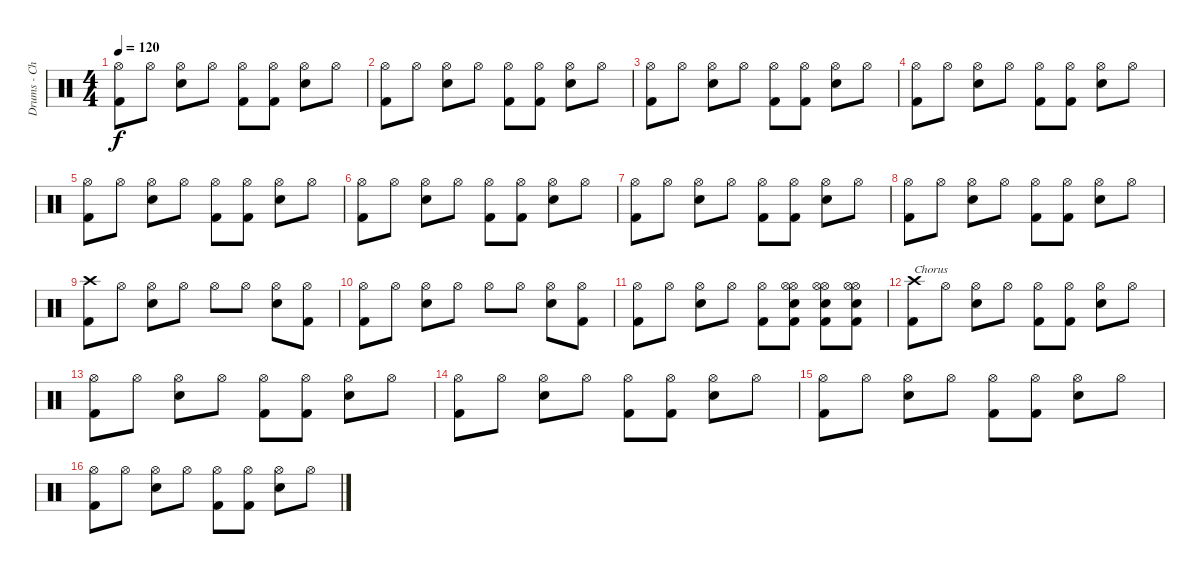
\track ("Drums - Chris" "Drums - Ch") {instrument percussion}
\staff {score}
\articulation defaults
\ts (4 4)
\tempo 120
\clef neutral
\ks c
("Hi-Hat (open)" "Kick (hit) 2").8{dy f} "Hi-Hat (open)".8 ("Hi-Hat (open)" "Snare (hit) 2").8 "Hi-Hat (open)".8 ("Hi-Hat (open)" "Kick (hit) 2").8 ("Hi-Hat (open)" "Kick (hit) 2").8 ("Hi-Hat (open)" "Snare (hit) 2").8 "Hi-Hat (open)".8 |
("Hi-Hat (open)" "Kick (hit) 2").8 "Hi-Hat (open)".8 ("Hi-Hat (open)" "Snare (hit) 2").8 "Hi-Hat (open)".8 ("Hi-Hat (open)" "Kick (hit) 2").8 ("Hi-Hat (open)" "Kick (hit) 2").8 ("Hi-Hat (open)" "Snare (hit) 2").8 "Hi-Hat (open)".8 |
("Hi-Hat (open)" "Kick (hit) 2").8 "Hi-Hat (open)".8 ("Hi-Hat (open)" "Snare (hit) 2").8 "Hi-Hat (open)".8 ("Hi-Hat (open)" "Kick (hit) 2").8 ("Hi-Hat (open)" "Kick (hit) 2").8 ("Hi-Hat (open)" "Snare (hit) 2").8 "Hi-Hat (open)".8 |
("Hi-Hat (open)" "Kick (hit) 2").8 "Hi-Hat (open)".8 ("Hi-Hat (open)" "Snare (hit) 2").8 "Hi-Hat (open)".8 ("Hi-Hat (open)" "Kick (hit) 2").8 ("Hi-Hat (open)" "Kick (hit) 2").8 ("Hi-Hat (open)" "Snare (hit) 2").8 "Hi-Hat (open)".8 |
("Hi-Hat (open)" "Kick (hit) 2").8 "Hi-Hat (open)".8 ("Hi-Hat (open)" "Snare (hit) 2").8 "Hi-Hat (open)".8 ("Hi-Hat (open)" "Kick (hit) 2").8 ("Hi-Hat (open)" "Kick (hit) 2").8 ("Hi-Hat (open)" "Snare (hit) 2").8 "Hi-Hat (open)".8 |
("Hi-Hat (open)" "Kick (hit) 2").8 "Hi-Hat (open)".8 ("Hi-Hat (open)" "Snare (hit) 2").8 "Hi-Hat (open)".8 ("Hi-Hat (open)" "Kick (hit) 2").8 ("Hi-Hat (open)" "Kick (hit) 2").8 ("Hi-Hat (open)" "Snare (hit) 2").8 "Hi-Hat (open)".8 |
("Hi-Hat (open)" "Kick (hit) 2").8 "Hi-Hat (open)".8 ("Hi-Hat (open)" "Snare (hit) 2").8 "Hi-Hat (open)".8 ("Hi-Hat (open)" "Kick (hit) 2").8 ("Hi-Hat (open)" "Kick (hit) 2").8 ("Hi-Hat (open)" "Snare (hit) 2").8 "Hi-Hat (open)".8 |
("Hi-Hat (open)" "Kick (hit) 2").8 "Hi-Hat (open)".8 ("Hi-Hat (open)" "Snare (hit) 2").8 "Hi-Hat (open)".8 ("Hi-Hat (open)" "Kick (hit) 2").8 ("Hi-Hat (open)" "Kick (hit) 2").8 ("Hi-Hat (open)" "Snare (hit) 2").8 "Hi-Hat (open)".8 |
("Crash high (hit)" "Kick (hit) 2").8 "Hi-Hat (open)".8 ("Hi-Hat (open)" "Snare (hit) 2").8 "Hi-Hat (open)".8 "Hi-Hat (open)".8 "Hi-Hat (open)".8 ("Hi-Hat (open)" "Snare (hit) 2").8 ("Hi-Hat (open)" "Kick (hit) 2").8 |
("Hi-Hat (open)" "Kick (hit) 2").8 "Hi-Hat (open)".8 ("Hi-Hat (open)" "Snare (hit) 2").8 "Hi-Hat (open)".8 "Hi-Hat (open)".8 "Hi-Hat (open)".8 ("Hi-Hat (open)" "Snare (hit) 2").8 ("Hi-Hat (open)" "Kick (hit) 2").8 |
("Hi-Hat (open)" "Kick (hit) 2").8 "Hi-Hat (open)".8 ("Hi-Hat (open)" "Snare (hit) 2").8 "Hi-Hat (open)".8 ("Hi-Hat (open)" "Kick (hit) 2").8 ("Hi-Hat (open)" "Hi-Hat (open)" "Snare (hit) 2" "Kick (hit) 2").8 ("Hi-Hat (open)" "Hi-Hat (open)" "Snare (hit) 2" "Kick (hit) 2").8 ("Hi-Hat (open)" "Hi-Hat (open)" "Snare (hit) 2" "Kick (hit) 2").8 |
("Crash high (hit)" "Kick (hit) 2").8{txt "Chorus"} "Hi-Hat (open)".8 ("Hi-Hat (open)" "Snare (hit) 2").8 "Hi-Hat (open)".8 ("Hi-Hat (open)" "Kick (hit) 2").8 ("Hi-Hat (open)" "Kick (hit) 2").8 ("Hi-Hat (open)" "Snare (hit) 2").8 "Hi-Hat (open)".8 |
("Hi-Hat (open)" "Kick (hit) 2").8 "Hi-Hat (open)".8 ("Hi-Hat (open)" "Snare (hit) 2").8 "Hi-Hat (open)".8 ("Hi-Hat (open)" "Kick (hit) 2").8 ("Hi-Hat (open)" "Kick (hit) 2").8 ("Hi-Hat (open)" "Snare (hit) 2").8 "Hi-Hat (open)".8 |
("Hi-Hat (open)" "Kick (hit) 2").8 "Hi-Hat (open)".8 ("Hi-Hat (open)" "Snare (hit) 2").8 "Hi-Hat (open)".8 ("Hi-Hat (open)" "Kick (hit) 2").8 ("Hi-Hat (open)" "Kick (hit) 2").8 ("Hi-Hat (open)" "Snare (hit) 2").8 "Hi-Hat (open)".8 |
("Hi-Hat (open)" "Kick (hit) 2").8 "Hi-Hat (open)".8 ("Hi-Hat (open)" "Snare (hit) 2").8 "Hi-Hat (open)".8 ("Hi-Hat (open)" "Kick (hit) 2").8 ("Hi-Hat (open)" "Kick (hit) 2").8 ("Hi-Hat (open)" "Snare (hit) 2").8 "Hi-Hat (open)".8 |
("Hi-Hat (open)" "Kick (hit) 2").8 "Hi-Hat (open)".8 ("Hi-Hat (open)" "Snare (hit) 2").8 "Hi-Hat (open)".8 ("Hi-Hat (open)" "Kick (hit) 2").8 ("Hi-Hat (open)" "Kick (hit) 2").8 ("Hi-Hat (open)" "Snare (hit) 2").8 "Hi-Hat (open)".8
